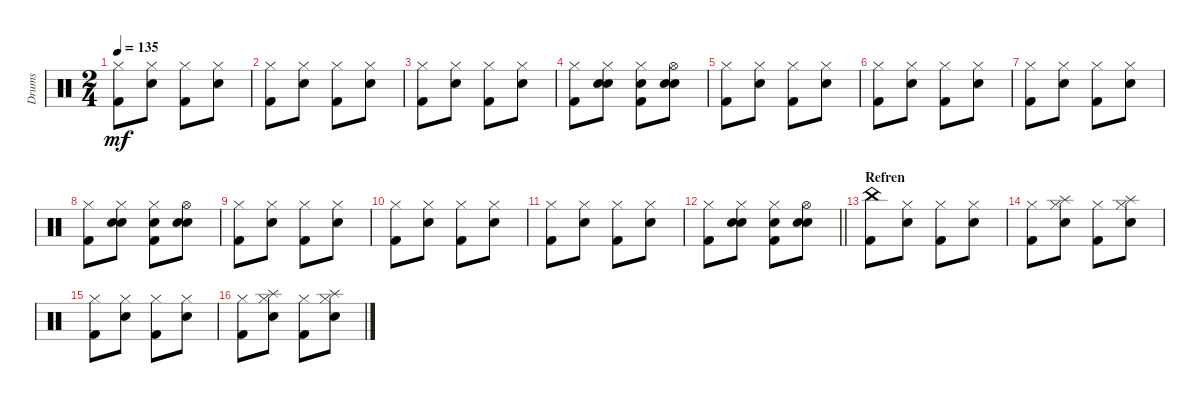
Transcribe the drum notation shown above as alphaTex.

\track ("Drums" "Drums") {instrument percussion}
\staff {score}
\articulation defaults
\ts (2 4)
\tempo 135
\clef neutral
\ks c
("Hi-Hat (closed)" "Kick (hit) 2").8{dy mf} ("Hi-Hat (closed)" "Electric Snare (hit)").8 ("Hi-Hat (closed)" "Kick (hit) 2").8 ("Hi-Hat (closed)" "Electric Snare (hit)").8 |
("Hi-Hat (closed)" "Kick (hit) 2").8 ("Hi-Hat (closed)" "Electric Snare (hit)").8 ("Hi-Hat (closed)" "Kick (hit) 2").8 ("Hi-Hat (closed)" "Electric Snare (hit)").8 |
("Hi-Hat (closed)" "Kick (hit) 2").8 ("Hi-Hat (closed)" "Electric Snare (hit)").8 ("Hi-Hat (closed)" "Kick (hit) 2").8 ("Hi-Hat (closed)" "Electric Snare (hit)").8 |
("Hi-Hat (closed)" "Kick (hit) 2").8 ("Hi-Hat (closed)" "Electric Snare (hit)" "Hand Clap (hit)").8 ("Hi-Hat (closed)" "Hand Clap (hit)" "Kick (hit) 2").8 ("Hi-Hat (open)" "Electric Snare (hit)" "Hand Clap (hit)").8 |
("Hi-Hat (closed)" "Kick (hit) 2").8 ("Hi-Hat (closed)" "Electric Snare (hit)").8 ("Hi-Hat (closed)" "Kick (hit) 2").8 ("Hi-Hat (closed)" "Electric Snare (hit)").8 |
("Hi-Hat (closed)" "Kick (hit) 2").8 ("Hi-Hat (closed)" "Electric Snare (hit)").8 ("Hi-Hat (closed)" "Kick (hit) 2").8 ("Hi-Hat (closed)" "Electric Snare (hit)").8 |
("Hi-Hat (closed)" "Kick (hit) 2").8 ("Hi-Hat (closed)" "Electric Snare (hit)").8 ("Hi-Hat (closed)" "Kick (hit) 2").8 ("Hi-Hat (closed)" "Electric Snare (hit)").8 |
("Hi-Hat (closed)" "Kick (hit) 2").8 ("Hi-Hat (closed)" "Electric Snare (hit)" "Hand Clap (hit)").8 ("Hi-Hat (closed)" "Hand Clap (hit)" "Kick (hit) 2").8 ("Hi-Hat (open)" "Electric Snare (hit)" "Hand Clap (hit)").8 |
("Hi-Hat (closed)" "Kick (hit) 2").8 ("Hi-Hat (closed)" "Electric Snare (hit)").8 ("Hi-Hat (closed)" "Kick (hit) 2").8 ("Hi-Hat (closed)" "Electric Snare (hit)").8 |
("Hi-Hat (closed)" "Kick (hit) 2").8 ("Hi-Hat (closed)" "Electric Snare (hit)").8 ("Hi-Hat (closed)" "Kick (hit) 2").8 ("Hi-Hat (closed)" "Electric Snare (hit)").8 |
("Hi-Hat (closed)" "Kick (hit) 2").8 ("Hi-Hat (closed)" "Electric Snare (hit)").8 ("Hi-Hat (closed)" "Kick (hit) 2").8 ("Hi-Hat (closed)" "Electric Snare (hit)").8 |
\barLineRight lightlight
("Hi-Hat (closed)" "Kick (hit) 2").8 ("Hi-Hat (closed)" "Electric Snare (hit)" "Hand Clap (hit)").8 ("Hi-Hat (closed)" "Hand Clap (hit)" "Kick (hit) 2").8 ("Hi-Hat (open)" "Electric Snare (hit)" "Hand Clap (hit)").8 |
\section ("" "Refren")
("China (hit)" "Kick (hit) 2").8 ("Hi-Hat (closed)" "Electric Snare (hit)").8 ("Hi-Hat (closed)" "Kick (hit) 2").8 ("Hi-Hat (closed)" "Electric Snare (hit)").8 |
("Hi-Hat (closed)" "Kick (hit) 2").8 ("Splash (hit)" "Hi-Hat (closed)" "Electric Snare (hit)").8 ("Hi-Hat (closed)" "Kick (hit) 2").8 ("Splash (hit)" "Hi-Hat (closed)" "Electric Snare (hit)").8 |
("Hi-Hat (closed)" "Kick (hit) 2").8 ("Hi-Hat (closed)" "Electric Snare (hit)").8 ("Hi-Hat (closed)" "Kick (hit) 2").8 ("Hi-Hat (closed)" "Electric Snare (hit)").8 |
("Hi-Hat (closed)" "Kick (hit) 2").8 ("Splash (hit)" "Hi-Hat (closed)" "Electric Snare (hit)").8 ("Hi-Hat (closed)" "Kick (hit) 2").8 ("Splash (hit)" "Hi-Hat (closed)" "Electric Snare (hit)").8
